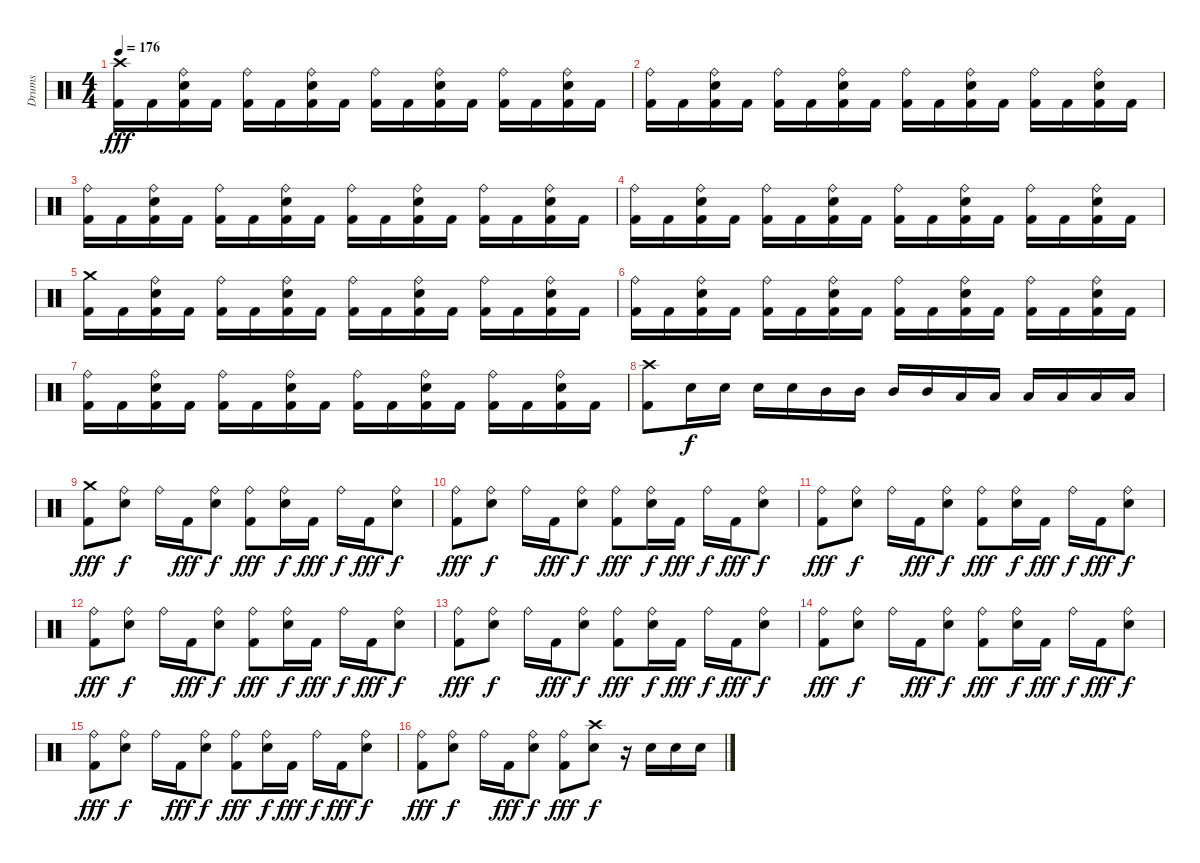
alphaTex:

\track ("Drums" "Drums") {instrument percussion}
\staff {score}
\articulation defaults
\ts (4 4)
\tempo 176
\clef neutral
\ks c
("Crash high (hit)" "Kick (hit) 2").16{dy fff} "Kick (hit) 2".16 ("Ride (bell)" "Snare (hit) 2" "Kick (hit) 2").16 "Kick (hit) 2".16 ("Ride (bell)" "Kick (hit) 2").16 "Kick (hit) 2".16 ("Ride (bell)" "Snare (hit) 2" "Kick (hit) 2").16 "Kick (hit) 2".16 ("Ride (bell)" "Kick (hit) 2").16 "Kick (hit) 2".16 ("Ride (bell)" "Snare (hit) 2" "Kick (hit) 2").16 "Kick (hit) 2".16 ("Ride (bell)" "Kick (hit) 2").16 "Kick (hit) 2".16 ("Ride (bell)" "Snare (hit) 2" "Kick (hit) 2").16 "Kick (hit) 2".16 |
("Ride (bell)" "Kick (hit) 2").16 "Kick (hit) 2".16 ("Ride (bell)" "Snare (hit) 2" "Kick (hit) 2").16 "Kick (hit) 2".16 ("Ride (bell)" "Kick (hit) 2").16 "Kick (hit) 2".16 ("Ride (bell)" "Snare (hit) 2" "Kick (hit) 2").16 "Kick (hit) 2".16 ("Ride (bell)" "Kick (hit) 2").16 "Kick (hit) 2".16 ("Ride (bell)" "Snare (hit) 2" "Kick (hit) 2").16 "Kick (hit) 2".16 ("Ride (bell)" "Kick (hit) 2").16 "Kick (hit) 2".16 ("Ride (bell)" "Snare (hit) 2" "Kick (hit) 2").16 "Kick (hit) 2".16 |
("Ride (bell)" "Kick (hit) 2").16 "Kick (hit) 2".16 ("Ride (bell)" "Snare (hit) 2" "Kick (hit) 2").16 "Kick (hit) 2".16 ("Ride (bell)" "Kick (hit) 2").16 "Kick (hit) 2".16 ("Ride (bell)" "Snare (hit) 2" "Kick (hit) 2").16 "Kick (hit) 2".16 ("Ride (bell)" "Kick (hit) 2").16 "Kick (hit) 2".16 ("Ride (bell)" "Snare (hit) 2" "Kick (hit) 2").16 "Kick (hit) 2".16 ("Ride (bell)" "Kick (hit) 2").16 "Kick (hit) 2".16 ("Ride (bell)" "Snare (hit) 2" "Kick (hit) 2").16 "Kick (hit) 2".16 |
("Ride (bell)" "Kick (hit) 2").16 "Kick (hit) 2".16 ("Ride (bell)" "Snare (hit) 2" "Kick (hit) 2").16 "Kick (hit) 2".16 ("Ride (bell)" "Kick (hit) 2").16 "Kick (hit) 2".16 ("Ride (bell)" "Snare (hit) 2" "Kick (hit) 2").16 "Kick (hit) 2".16 ("Ride (bell)" "Kick (hit) 2").16 "Kick (hit) 2".16 ("Ride (bell)" "Snare (hit) 2" "Kick (hit) 2").16 "Kick (hit) 2".16 ("Ride (bell)" "Kick (hit) 2").16 "Kick (hit) 2".16 ("Ride (bell)" "Snare (hit) 2" "Kick (hit) 2").16 "Kick (hit) 2".16 |
("Crash medium (hit)" "Kick (hit) 2").16 "Kick (hit) 2".16 ("Ride (bell)" "Snare (hit) 2" "Kick (hit) 2").16 "Kick (hit) 2".16 ("Ride (bell)" "Kick (hit) 2").16 "Kick (hit) 2".16 ("Ride (bell)" "Snare (hit) 2" "Kick (hit) 2").16 "Kick (hit) 2".16 ("Ride (bell)" "Kick (hit) 2").16 "Kick (hit) 2".16 ("Ride (bell)" "Snare (hit) 2" "Kick (hit) 2").16 "Kick (hit) 2".16 ("Ride (bell)" "Kick (hit) 2").16 "Kick (hit) 2".16 ("Ride (bell)" "Snare (hit) 2" "Kick (hit) 2").16 "Kick (hit) 2".16 |
("Ride (bell)" "Kick (hit) 2").16 "Kick (hit) 2".16 ("Ride (bell)" "Snare (hit) 2" "Kick (hit) 2").16 "Kick (hit) 2".16 ("Ride (bell)" "Kick (hit) 2").16 "Kick (hit) 2".16 ("Ride (bell)" "Snare (hit) 2" "Kick (hit) 2").16 "Kick (hit) 2".16 ("Ride (bell)" "Kick (hit) 2").16 "Kick (hit) 2".16 ("Ride (bell)" "Snare (hit) 2" "Kick (hit) 2").16 "Kick (hit) 2".16 ("Ride (bell)" "Kick (hit) 2").16 "Kick (hit) 2".16 ("Ride (bell)" "Snare (hit) 2" "Kick (hit) 2").16 "Kick (hit) 2".16 |
("Ride (bell)" "Kick (hit) 2").16 "Kick (hit) 2".16 ("Ride (bell)" "Snare (hit) 2" "Kick (hit) 2").16 "Kick (hit) 2".16 ("Ride (bell)" "Kick (hit) 2").16 "Kick (hit) 2".16 ("Ride (bell)" "Snare (hit) 2" "Kick (hit) 2").16 "Kick (hit) 2".16 ("Ride (bell)" "Kick (hit) 2").16 "Kick (hit) 2".16 ("Ride (bell)" "Snare (hit) 2" "Kick (hit) 2").16 "Kick (hit) 2".16 ("Ride (bell)" "Kick (hit) 2").16 "Kick (hit) 2".16 ("Ride (bell)" "Snare (hit) 2" "Kick (hit) 2").16 "Kick (hit) 2".16 |
("Crash high (hit)" "Kick (hit) 2").8 "Snare (hit) 2".16{dy f} "Snare (hit) 2".16 "Snare (hit) 2".16 "Snare (hit) 2".16 "Mid Tom (hit)".16 "Mid Tom (hit)".16 "Mid Tom (hit)".16 "Mid Tom (hit)".16 "Low Tom (hit)".16 "Low Tom (hit)".16 "Low Tom (hit)".16 "Low Tom (hit)".16 "Low Tom (hit)".16 "Low Tom (hit)".16 |
("Crash medium (hit)" "Kick (hit) 2").8{dy fff} ("Ride (bell)" "Snare (hit) 2").8{dy f} "Ride (bell)".16 "Kick (hit) 2".16{dy fff} ("Ride (bell)" "Snare (hit) 2").8{dy f} ("Ride (bell)" "Kick (hit) 2").8{dy fff} ("Ride (bell)" "Snare (hit) 2").16{dy f} "Kick (hit) 2".16{dy fff} "Ride (bell)".16{dy f} "Kick (hit) 2".16{dy fff} ("Ride (bell)" "Snare (hit) 2").8{dy f} |
("Ride (bell)" "Kick (hit) 2").8{dy fff} ("Ride (bell)" "Snare (hit) 2").8{dy f} "Ride (bell)".16 "Kick (hit) 2".16{dy fff} ("Ride (bell)" "Snare (hit) 2").8{dy f} ("Ride (bell)" "Kick (hit) 2").8{dy fff} ("Ride (bell)" "Snare (hit) 2").16{dy f} "Kick (hit) 2".16{dy fff} "Ride (bell)".16{dy f} "Kick (hit) 2".16{dy fff} ("Ride (bell)" "Snare (hit) 2").8{dy f} |
("Ride (bell)" "Kick (hit) 2").8{dy fff} ("Ride (bell)" "Snare (hit) 2").8{dy f} "Ride (bell)".16 "Kick (hit) 2".16{dy fff} ("Ride (bell)" "Snare (hit) 2").8{dy f} ("Ride (bell)" "Kick (hit) 2").8{dy fff} ("Ride (bell)" "Snare (hit) 2").16{dy f} "Kick (hit) 2".16{dy fff} "Ride (bell)".16{dy f} "Kick (hit) 2".16{dy fff} ("Ride (bell)" "Snare (hit) 2").8{dy f} |
("Ride (bell)" "Kick (hit) 2").8{dy fff} ("Ride (bell)" "Snare (hit) 2").8{dy f} "Ride (bell)".16 "Kick (hit) 2".16{dy fff} ("Ride (bell)" "Snare (hit) 2").8{dy f} ("Ride (bell)" "Kick (hit) 2").8{dy fff} ("Ride (bell)" "Snare (hit) 2").16{dy f} "Kick (hit) 2".16{dy fff} "Ride (bell)".16{dy f} "Kick (hit) 2".16{dy fff} ("Ride (bell)" "Snare (hit) 2").8{dy f} |
("Ride (bell)" "Kick (hit) 2").8{dy fff} ("Ride (bell)" "Snare (hit) 2").8{dy f} "Ride (bell)".16 "Kick (hit) 2".16{dy fff} ("Ride (bell)" "Snare (hit) 2").8{dy f} ("Ride (bell)" "Kick (hit) 2").8{dy fff} ("Ride (bell)" "Snare (hit) 2").16{dy f} "Kick (hit) 2".16{dy fff} "Ride (bell)".16{dy f} "Kick (hit) 2".16{dy fff} ("Ride (bell)" "Snare (hit) 2").8{dy f} |
("Ride (bell)" "Kick (hit) 2").8{dy fff} ("Ride (bell)" "Snare (hit) 2").8{dy f} "Ride (bell)".16 "Kick (hit) 2".16{dy fff} ("Ride (bell)" "Snare (hit) 2").8{dy f} ("Ride (bell)" "Kick (hit) 2").8{dy fff} ("Ride (bell)" "Snare (hit) 2").16{dy f} "Kick (hit) 2".16{dy fff} "Ride (bell)".16{dy f} "Kick (hit) 2".16{dy fff} ("Ride (bell)" "Snare (hit) 2").8{dy f} |
("Ride (bell)" "Kick (hit) 2").8{dy fff} ("Ride (bell)" "Snare (hit) 2").8{dy f} "Ride (bell)".16 "Kick (hit) 2".16{dy fff} ("Ride (bell)" "Snare (hit) 2").8{dy f} ("Ride (bell)" "Kick (hit) 2").8{dy fff} ("Ride (bell)" "Snare (hit) 2").16{dy f} "Kick (hit) 2".16{dy fff} "Ride (bell)".16{dy f} "Kick (hit) 2".16{dy fff} ("Ride (bell)" "Snare (hit) 2").8{dy f} |
("Ride (bell)" "Kick (hit) 2").8{dy fff} ("Ride (bell)" "Snare (hit) 2").8{dy f} "Ride (bell)".16 "Kick (hit) 2".16{dy fff} ("Ride (bell)" "Snare (hit) 2").8{dy f} ("Ride (bell)" "Kick (hit) 2").8{dy fff} ("Crash high (hit)" "Snare (hit) 2").8{dy f} r.16 "Snare (hit) 2".16 "Snare (hit) 2".16 "Snare (hit) 2".16
